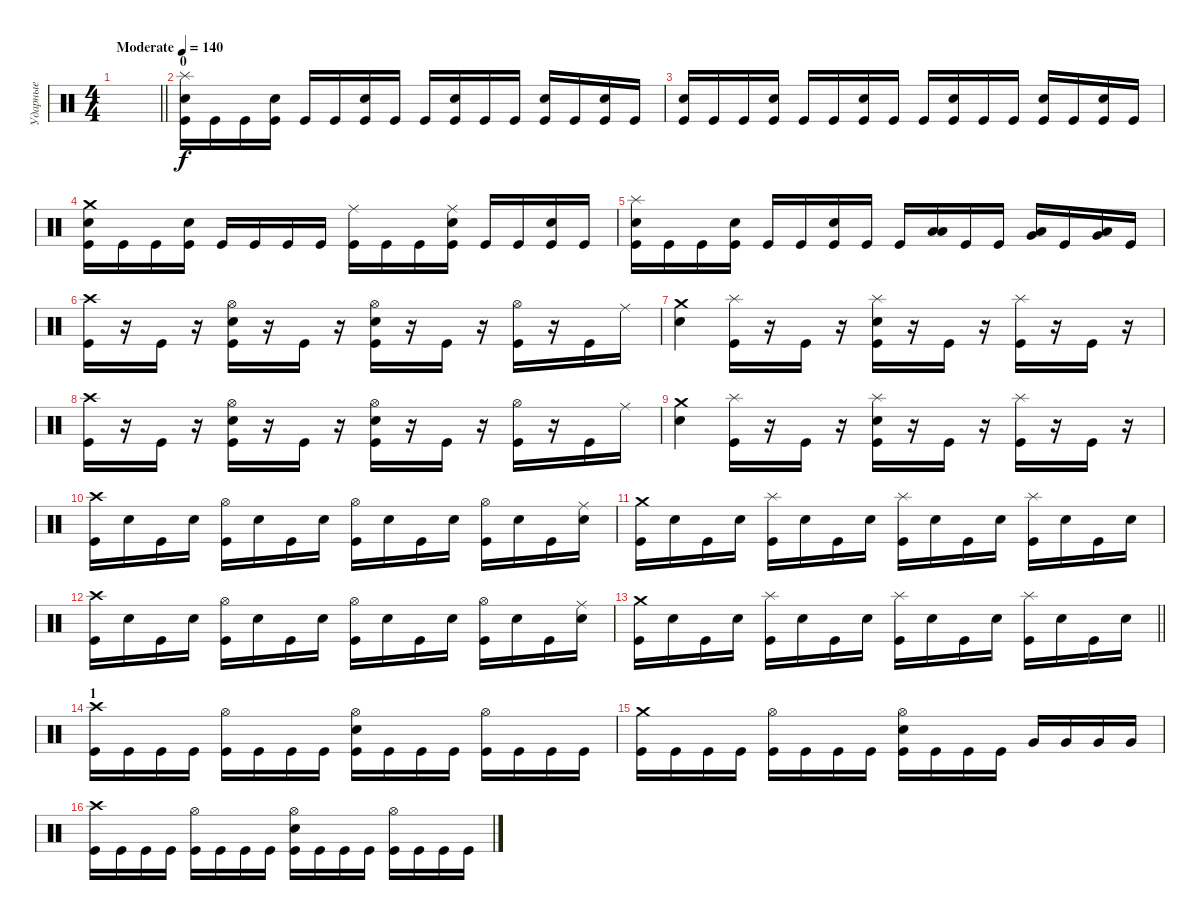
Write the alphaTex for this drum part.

\track ("Ударные" "Ударные") {instrument percussion}
\staff {score}
\articulation defaults
\ts (4 4)
\tempo (140 "Moderate")
\clef neutral
\barLineRight lightlight
\ks c
|
\section ("" "0")
("Splash (hit)" "Electric Snare (hit)" "Kick (hit)").16 "Kick (hit)".16 "Kick (hit)".16 ("Electric Snare (hit)" "Kick (hit)").16 "Kick (hit)".16 "Kick (hit)".16 ("Electric Snare (hit)" "Kick (hit)").16 "Kick (hit)".16 "Kick (hit)".16 ("Electric Snare (hit)" "Kick (hit)").16 "Kick (hit)".16 "Kick (hit)".16 ("Electric Snare (hit)" "Kick (hit)").16 "Kick (hit)".16 ("Electric Snare (hit)" "Kick (hit)").16 "Kick (hit)".16 |
("Electric Snare (hit)" "Kick (hit)").16 "Kick (hit)".16 "Kick (hit)".16 ("Electric Snare (hit)" "Kick (hit)").16 "Kick (hit)".16 "Kick (hit)".16 ("Electric Snare (hit)" "Kick (hit)").16 "Kick (hit)".16 "Kick (hit)".16 ("Electric Snare (hit)" "Kick (hit)").16 "Kick (hit)".16 "Kick (hit)".16 ("Electric Snare (hit)" "Kick (hit)").16 "Kick (hit)".16 ("Electric Snare (hit)" "Kick (hit)").16 "Kick (hit)".16 |
("Crash medium (hit)" "Electric Snare (hit)" "Kick (hit)").16 "Kick (hit)".16 "Kick (hit)".16 ("Electric Snare (hit)" "Kick (hit)").16 "Kick (hit)".16 "Kick (hit)".16 "Kick (hit)".16 "Kick (hit)".16 ("Ride (middle)" "Kick (hit)").16 "Kick (hit)".16 "Kick (hit)".16 ("Ride (middle)" "Electric Snare (hit)" "Kick (hit)").16 "Kick (hit)".16 "Kick (hit)".16 ("Electric Snare (hit)" "Kick (hit)").16 "Kick (hit)".16 |
("Splash (hit)" "Electric Snare (hit)" "Kick (hit)").16 "Kick (hit)".16 "Kick (hit)".16 ("Electric Snare (hit)" "Kick (hit)").16 "Kick (hit)".16 "Kick (hit)".16 ("Electric Snare (hit)" "Kick (hit)").16 "Kick (hit)".16 "Kick (hit)".16 ("Low Tom (hit)" "Low Floor Tom (hit)").16 "Kick (hit)".16 "Kick (hit)".16 ("Very Low Tom (hit)" "Low Floor Tom (hit)").16 "Kick (hit)".16 ("Very Low Tom (hit)" "Low Floor Tom (hit)").16 "Kick (hit)".16 |
("Crash high (hit)" "Kick (hit)").16 r.16 "Kick (hit)".16 r.16 ("Hi-Hat (open)" "Electric Snare (hit)" "Kick (hit)").16 r.16 "Kick (hit)".16 r.16 ("Hi-Hat (open)" "Electric Snare (hit)" "Kick (hit)").16 r.16 "Kick (hit)".16 r.16 ("Hi-Hat (open)" "Kick (hit)").16 r.16 "Kick (hit)".16 "Ride (middle)".16 |
("Crash medium (hit)" "Electric Snare (hit)").4 ("Splash (hit)" "Kick (hit)").16 r.16 "Kick (hit)".16 r.16 ("Splash (hit)" "Electric Snare (hit)" "Kick (hit)").16 r.16 "Kick (hit)".16 r.16 ("Splash (hit)" "Kick (hit)").16 r.16 "Kick (hit)".16 r.16 |
("Crash high (hit)" "Kick (hit)").16 r.16 "Kick (hit)".16 r.16 ("Hi-Hat (open)" "Electric Snare (hit)" "Kick (hit)").16 r.16 "Kick (hit)".16 r.16 ("Hi-Hat (open)" "Electric Snare (hit)" "Kick (hit)").16 r.16 "Kick (hit)".16 r.16 ("Hi-Hat (open)" "Kick (hit)").16 r.16 "Kick (hit)".16 "Ride (middle)".16 |
("Crash medium (hit)" "Electric Snare (hit)").4 ("Splash (hit)" "Kick (hit)").16 r.16 "Kick (hit)".16 r.16 ("Splash (hit)" "Electric Snare (hit)" "Kick (hit)").16 r.16 "Kick (hit)".16 r.16 ("Splash (hit)" "Kick (hit)").16 r.16 "Kick (hit)".16 r.16 |
("Crash high (hit)" "Kick (hit)").16 "Electric Snare (hit)".16 "Kick (hit)".16 "Electric Snare (hit)".16 ("Hi-Hat (open)" "Kick (hit)").16 "Electric Snare (hit)".16 "Kick (hit)".16 "Electric Snare (hit)".16 ("Hi-Hat (open)" "Kick (hit)").16 "Electric Snare (hit)".16 "Kick (hit)".16 "Electric Snare (hit)".16 ("Hi-Hat (open)" "Kick (hit)").16 "Electric Snare (hit)".16 "Kick (hit)".16 ("Ride (middle)" "Electric Snare (hit)").16 |
("Crash medium (hit)" "Kick (hit)").16 "Electric Snare (hit)".16 "Kick (hit)".16 "Electric Snare (hit)".16 ("Splash (hit)" "Kick (hit)").16 "Electric Snare (hit)".16 "Kick (hit)".16 "Electric Snare (hit)".16 ("Splash (hit)" "Kick (hit)").16 "Electric Snare (hit)".16 "Kick (hit)".16 "Electric Snare (hit)".16 ("Splash (hit)" "Kick (hit)").16 "Electric Snare (hit)".16 "Kick (hit)".16 "Electric Snare (hit)".16 |
("Crash high (hit)" "Kick (hit)").16 "Electric Snare (hit)".16 "Kick (hit)".16 "Electric Snare (hit)".16 ("Hi-Hat (open)" "Kick (hit)").16 "Electric Snare (hit)".16 "Kick (hit)".16 "Electric Snare (hit)".16 ("Hi-Hat (open)" "Kick (hit)").16 "Electric Snare (hit)".16 "Kick (hit)".16 "Electric Snare (hit)".16 ("Hi-Hat (open)" "Kick (hit)").16 "Electric Snare (hit)".16 "Kick (hit)".16 ("Ride (middle)" "Electric Snare (hit)").16 |
\barLineRight lightlight
("Crash medium (hit)" "Kick (hit)").16 "Electric Snare (hit)".16 "Kick (hit)".16 "Electric Snare (hit)".16 ("Splash (hit)" "Kick (hit)").16 "Electric Snare (hit)".16 "Kick (hit)".16 "Electric Snare (hit)".16 ("Splash (hit)" "Kick (hit)").16 "Electric Snare (hit)".16 "Kick (hit)".16 "Electric Snare (hit)".16 ("Splash (hit)" "Kick (hit)").16 "Electric Snare (hit)".16 "Kick (hit)".16 "Electric Snare (hit)".16 |
\section ("" "1")
("Crash high (hit)" "Kick (hit)").16 "Kick (hit)".16 "Kick (hit)".16 "Kick (hit)".16 ("Hi-Hat (open)" "Kick (hit)").16 "Kick (hit)".16 "Kick (hit)".16 "Kick (hit)".16 ("Hi-Hat (open)" "Electric Snare (hit)" "Kick (hit)").16 "Kick (hit)".16 "Kick (hit)".16 "Kick (hit)".16 ("Hi-Hat (open)" "Kick (hit)").16 "Kick (hit)".16 "Kick (hit)".16 "Kick (hit)".16 |
("Crash medium (hit)" "Kick (hit)").16 "Kick (hit)".16 "Kick (hit)".16 "Kick (hit)".16 ("Hi-Hat (open)" "Kick (hit)").16 "Kick (hit)".16 "Kick (hit)".16 "Kick (hit)".16 ("Hi-Hat (open)" "Electric Snare (hit)" "Kick (hit)").16 "Kick (hit)".16 "Kick (hit)".16 "Kick (hit)".16 "Very Low Tom (hit)".16 "Very Low Tom (hit)".16 "Very Low Tom (hit)".16 "Very Low Tom (hit)".16 |
("Crash high (hit)" "Kick (hit)").16 "Kick (hit)".16 "Kick (hit)".16 "Kick (hit)".16 ("Hi-Hat (open)" "Kick (hit)").16 "Kick (hit)".16 "Kick (hit)".16 "Kick (hit)".16 ("Hi-Hat (open)" "Electric Snare (hit)" "Kick (hit)").16 "Kick (hit)".16 "Kick (hit)".16 "Kick (hit)".16 ("Hi-Hat (open)" "Kick (hit)").16 "Kick (hit)".16 "Kick (hit)".16 "Kick (hit)".16
